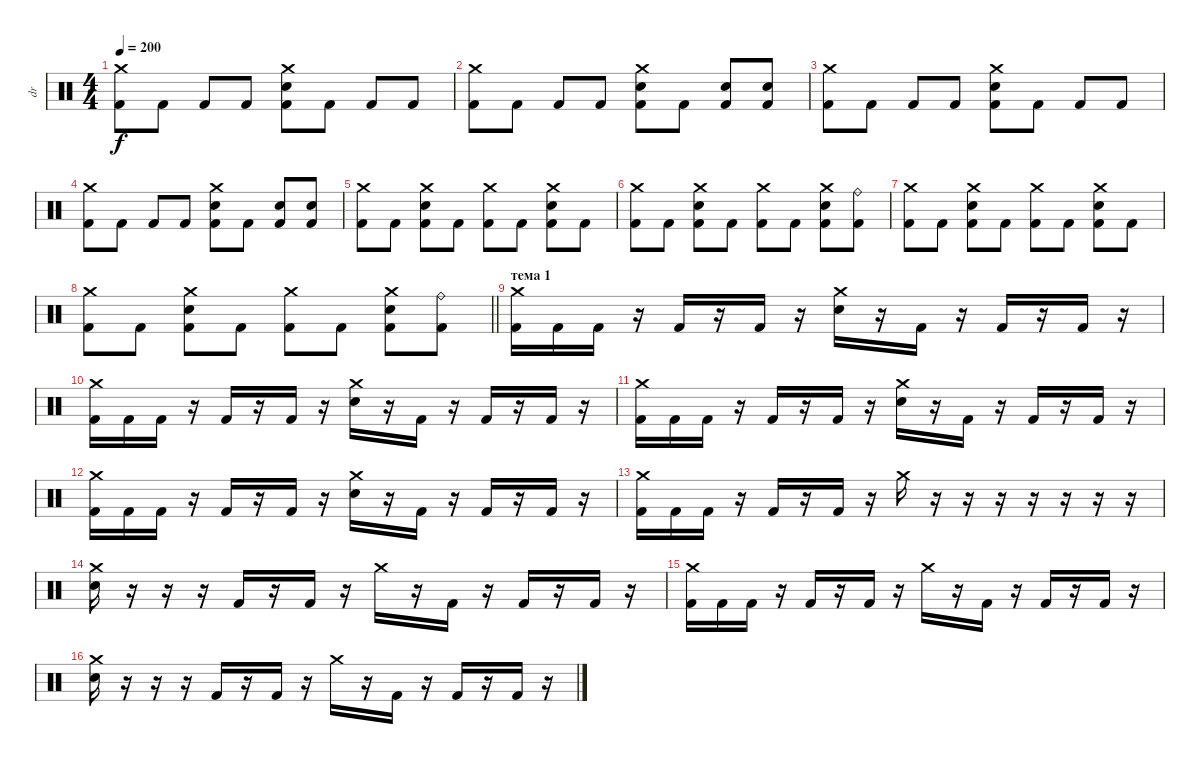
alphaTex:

\track ("dr" "dr") {instrument percussion}
\staff {score}
\articulation defaults
\ts (4 4)
\tempo 200
\clef neutral
\ks c
("Crash medium (hit)" "Kick (hit) 2").8{dy f} "Kick (hit) 2".8 "Kick (hit) 2".8 "Kick (hit) 2".8 ("Crash medium (hit)" "Electric Snare (hit)" "Kick (hit) 2").8 "Kick (hit) 2".8 "Kick (hit) 2".8 "Kick (hit) 2".8 |
("Crash medium (hit)" "Kick (hit) 2").8 "Kick (hit) 2".8 "Kick (hit) 2".8 "Kick (hit) 2".8 ("Crash medium (hit)" "Electric Snare (hit)" "Kick (hit) 2").8 "Kick (hit) 2".8 ("Electric Snare (hit)" "Kick (hit) 2").8 ("Electric Snare (hit)" "Kick (hit) 2").8 |
("Crash medium (hit)" "Kick (hit) 2").8 "Kick (hit) 2".8 "Kick (hit) 2".8 "Kick (hit) 2".8 ("Crash medium (hit)" "Electric Snare (hit)" "Kick (hit) 2").8 "Kick (hit) 2".8 "Kick (hit) 2".8 "Kick (hit) 2".8 |
("Crash medium (hit)" "Kick (hit) 2").8 "Kick (hit) 2".8 "Kick (hit) 2".8 "Kick (hit) 2".8 ("Crash medium (hit)" "Electric Snare (hit)" "Kick (hit) 2").8 "Kick (hit) 2".8 ("Electric Snare (hit)" "Kick (hit) 2").8 ("Electric Snare (hit)" "Kick (hit) 2").8 |
("Crash medium (hit)" "Kick (hit) 2").8 "Kick (hit) 2".8 ("Crash medium (hit)" "Electric Snare (hit)" "Kick (hit) 2").8 "Kick (hit) 2".8 ("Crash medium (hit)" "Kick (hit) 2").8 "Kick (hit) 2".8 ("Crash medium (hit)" "Electric Snare (hit)" "Kick (hit) 2").8 "Kick (hit) 2".8 |
("Crash medium (hit)" "Kick (hit) 2").8 "Kick (hit) 2".8 ("Crash medium (hit)" "Electric Snare (hit)" "Kick (hit) 2").8 "Kick (hit) 2".8 ("Crash medium (hit)" "Kick (hit) 2").8 "Kick (hit) 2".8 ("Crash medium (hit)" "Electric Snare (hit)" "Kick (hit) 2").8 ("Ride (bell)" "Kick (hit) 2").8 |
("Crash medium (hit)" "Kick (hit) 2").8 "Kick (hit) 2".8 ("Crash medium (hit)" "Electric Snare (hit)" "Kick (hit) 2").8 "Kick (hit) 2".8 ("Crash medium (hit)" "Kick (hit) 2").8 "Kick (hit) 2".8 ("Crash medium (hit)" "Electric Snare (hit)" "Kick (hit) 2").8 "Kick (hit) 2".8 |
\barLineRight lightlight
("Crash medium (hit)" "Kick (hit) 2").8 "Kick (hit) 2".8 ("Crash medium (hit)" "Electric Snare (hit)" "Kick (hit) 2").8 "Kick (hit) 2".8 ("Crash medium (hit)" "Kick (hit) 2").8 "Kick (hit) 2".8 ("Crash medium (hit)" "Electric Snare (hit)" "Kick (hit) 2").8 ("Ride (bell)" "Kick (hit) 2").8 |
\section ("" "тема 1")
("Crash medium (hit)" "Kick (hit) 2").16 "Kick (hit) 2".16 "Kick (hit) 2".16 r.16 "Kick (hit) 2".16 r.16 "Kick (hit) 2".16 r.16 ("Crash medium (hit)" "Electric Snare (hit)").16 r.16 "Kick (hit) 2".16 r.16 "Kick (hit) 2".16 r.16 "Kick (hit) 2".16 r.16 |
("Crash medium (hit)" "Kick (hit) 2").16 "Kick (hit) 2".16 "Kick (hit) 2".16 r.16 "Kick (hit) 2".16 r.16 "Kick (hit) 2".16 r.16 ("Crash medium (hit)" "Electric Snare (hit)").16 r.16 "Kick (hit) 2".16 r.16 "Kick (hit) 2".16 r.16 "Kick (hit) 2".16 r.16 |
("Crash medium (hit)" "Kick (hit) 2").16 "Kick (hit) 2".16 "Kick (hit) 2".16 r.16 "Kick (hit) 2".16 r.16 "Kick (hit) 2".16 r.16 ("Crash medium (hit)" "Electric Snare (hit)").16 r.16 "Kick (hit) 2".16 r.16 "Kick (hit) 2".16 r.16 "Kick (hit) 2".16 r.16 |
("Crash medium (hit)" "Kick (hit) 2").16 "Kick (hit) 2".16 "Kick (hit) 2".16 r.16 "Kick (hit) 2".16 r.16 "Kick (hit) 2".16 r.16 ("Crash medium (hit)" "Electric Snare (hit)").16 r.16 "Kick (hit) 2".16 r.16 "Kick (hit) 2".16 r.16 "Kick (hit) 2".16 r.16 |
("Crash medium (hit)" "Kick (hit) 2").16 "Kick (hit) 2".16 "Kick (hit) 2".16 r.16 "Kick (hit) 2".16 r.16 "Kick (hit) 2".16 r.16 "Crash medium (hit)".16 r.16 r.16 r.16 r.16 r.16 r.16 r.16 |
("Crash medium (hit)" "Electric Snare (hit)").16 r.16 r.16 r.16 "Kick (hit) 2".16 r.16 "Kick (hit) 2".16 r.16 "Crash medium (hit)".16 r.16 "Kick (hit) 2".16 r.16 "Kick (hit) 2".16 r.16 "Kick (hit) 2".16 r.16 |
("Crash medium (hit)" "Kick (hit) 2").16 "Kick (hit) 2".16 "Kick (hit) 2".16 r.16 "Kick (hit) 2".16 r.16 "Kick (hit) 2".16 r.16 "Crash medium (hit)".16 r.16 "Kick (hit) 2".16 r.16 "Kick (hit) 2".16 r.16 "Kick (hit) 2".16 r.16 |
("Crash medium (hit)" "Electric Snare (hit)").16 r.16 r.16 r.16 "Kick (hit) 2".16 r.16 "Kick (hit) 2".16 r.16 "Crash medium (hit)".16 r.16 "Kick (hit) 2".16 r.16 "Kick (hit) 2".16 r.16 "Kick (hit) 2".16 r.16
